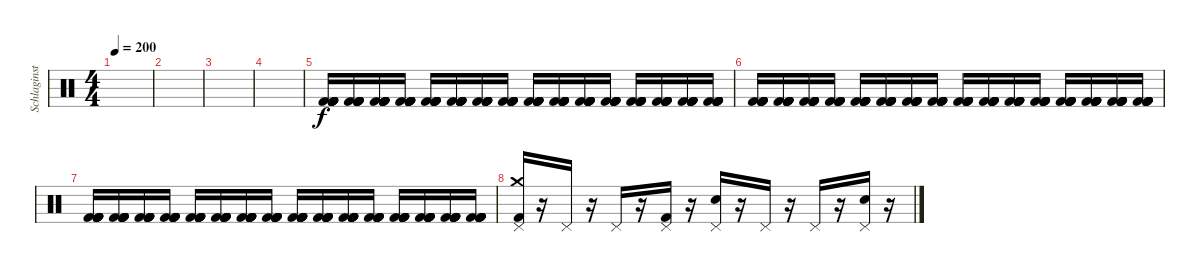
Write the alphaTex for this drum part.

\track ("Schlaginstrumente - Auswahl" "Schlaginst") {instrument percussion}
\staff {score}
\articulation defaults
\ts (4 4)
\tempo 200
\clef neutral
\ks c
|
|
|
|
("Kick (hit) 2" "Kick (hit) 2" "Kick (hit) 2" "Kick (hit) 2" "Kick (hit) 2" "Kick (hit) 2").16 ("Kick (hit) 2" "Kick (hit) 2" "Kick (hit) 2" "Kick (hit) 2" "Kick (hit) 2" "Kick (hit) 2").16 ("Kick (hit) 2" "Kick (hit) 2" "Kick (hit) 2" "Kick (hit) 2" "Kick (hit) 2" "Kick (hit) 2").16 ("Kick (hit) 2" "Kick (hit) 2" "Kick (hit) 2" "Kick (hit) 2" "Kick (hit) 2" "Kick (hit) 2").16 ("Kick (hit) 2" "Kick (hit) 2" "Kick (hit) 2" "Kick (hit) 2" "Kick (hit) 2" "Kick (hit) 2").16 ("Kick (hit) 2" "Kick (hit) 2" "Kick (hit) 2" "Kick (hit) 2" "Kick (hit) 2" "Kick (hit) 2").16 ("Kick (hit) 2" "Kick (hit) 2" "Kick (hit) 2" "Kick (hit) 2" "Kick (hit) 2" "Kick (hit) 2").16 ("Kick (hit) 2" "Kick (hit) 2" "Kick (hit) 2" "Kick (hit) 2" "Kick (hit) 2" "Kick (hit) 2").16 ("Kick (hit) 2" "Kick (hit) 2" "Kick (hit) 2" "Kick (hit) 2" "Kick (hit) 2" "Kick (hit) 2").16 ("Kick (hit) 2" "Kick (hit) 2" "Kick (hit) 2" "Kick (hit) 2" "Kick (hit) 2" "Kick (hit) 2").16 ("Kick (hit) 2" "Kick (hit) 2" "Kick (hit) 2" "Kick (hit) 2" "Kick (hit) 2" "Kick (hit) 2").16 ("Kick (hit) 2" "Kick (hit) 2" "Kick (hit) 2" "Kick (hit) 2" "Kick (hit) 2" "Kick (hit) 2").16 ("Kick (hit) 2" "Kick (hit) 2" "Kick (hit) 2" "Kick (hit) 2" "Kick (hit) 2" "Kick (hit) 2").16 ("Kick (hit) 2" "Kick (hit) 2" "Kick (hit) 2" "Kick (hit) 2" "Kick (hit) 2" "Kick (hit) 2").16 ("Kick (hit) 2" "Kick (hit) 2" "Kick (hit) 2" "Kick (hit) 2" "Kick (hit) 2" "Kick (hit) 2").16 ("Kick (hit) 2" "Kick (hit) 2" "Kick (hit) 2" "Kick (hit) 2" "Kick (hit) 2" "Kick (hit) 2").16 |
("Kick (hit) 2" "Kick (hit) 2" "Kick (hit) 2" "Kick (hit) 2" "Kick (hit) 2" "Kick (hit) 2").16 ("Kick (hit) 2" "Kick (hit) 2" "Kick (hit) 2" "Kick (hit) 2" "Kick (hit) 2" "Kick (hit) 2").16 ("Kick (hit) 2" "Kick (hit) 2" "Kick (hit) 2" "Kick (hit) 2" "Kick (hit) 2" "Kick (hit) 2").16 ("Kick (hit) 2" "Kick (hit) 2" "Kick (hit) 2" "Kick (hit) 2" "Kick (hit) 2" "Kick (hit) 2").16 ("Kick (hit) 2" "Kick (hit) 2" "Kick (hit) 2" "Kick (hit) 2" "Kick (hit) 2" "Kick (hit) 2").16 ("Kick (hit) 2" "Kick (hit) 2" "Kick (hit) 2" "Kick (hit) 2" "Kick (hit) 2" "Kick (hit) 2").16 ("Kick (hit) 2" "Kick (hit) 2" "Kick (hit) 2" "Kick (hit) 2" "Kick (hit) 2" "Kick (hit) 2").16 ("Kick (hit) 2" "Kick (hit) 2" "Kick (hit) 2" "Kick (hit) 2" "Kick (hit) 2" "Kick (hit) 2").16 ("Kick (hit) 2" "Kick (hit) 2" "Kick (hit) 2" "Kick (hit) 2" "Kick (hit) 2" "Kick (hit) 2").16 ("Kick (hit) 2" "Kick (hit) 2" "Kick (hit) 2" "Kick (hit) 2" "Kick (hit) 2" "Kick (hit) 2").16 ("Kick (hit) 2" "Kick (hit) 2" "Kick (hit) 2" "Kick (hit) 2" "Kick (hit) 2" "Kick (hit) 2").16 ("Kick (hit) 2" "Kick (hit) 2" "Kick (hit) 2" "Kick (hit) 2" "Kick (hit) 2" "Kick (hit) 2").16 ("Kick (hit) 2" "Kick (hit) 2" "Kick (hit) 2" "Kick (hit) 2" "Kick (hit) 2" "Kick (hit) 2").16 ("Kick (hit) 2" "Kick (hit) 2" "Kick (hit) 2" "Kick (hit) 2" "Kick (hit) 2" "Kick (hit) 2").16 ("Kick (hit) 2" "Kick (hit) 2" "Kick (hit) 2" "Kick (hit) 2" "Kick (hit) 2" "Kick (hit) 2").16 ("Kick (hit) 2" "Kick (hit) 2" "Kick (hit) 2" "Kick (hit) 2" "Kick (hit) 2" "Kick (hit) 2").16 |
("Kick (hit) 2" "Kick (hit) 2" "Kick (hit) 2" "Kick (hit) 2" "Kick (hit) 2" "Kick (hit) 2").16 ("Kick (hit) 2" "Kick (hit) 2" "Kick (hit) 2" "Kick (hit) 2" "Kick (hit) 2" "Kick (hit) 2").16 ("Kick (hit) 2" "Kick (hit) 2" "Kick (hit) 2" "Kick (hit) 2" "Kick (hit) 2" "Kick (hit) 2").16 ("Kick (hit) 2" "Kick (hit) 2" "Kick (hit) 2" "Kick (hit) 2" "Kick (hit) 2" "Kick (hit) 2").16 ("Kick (hit) 2" "Kick (hit) 2" "Kick (hit) 2" "Kick (hit) 2" "Kick (hit) 2" "Kick (hit) 2").16 ("Kick (hit) 2" "Kick (hit) 2" "Kick (hit) 2" "Kick (hit) 2" "Kick (hit) 2" "Kick (hit) 2").16 ("Kick (hit) 2" "Kick (hit) 2" "Kick (hit) 2" "Kick (hit) 2" "Kick (hit) 2" "Kick (hit) 2").16 ("Kick (hit) 2" "Kick (hit) 2" "Kick (hit) 2" "Kick (hit) 2" "Kick (hit) 2" "Kick (hit) 2").16 ("Kick (hit) 2" "Kick (hit) 2" "Kick (hit) 2" "Kick (hit) 2" "Kick (hit) 2" "Kick (hit) 2").16 ("Kick (hit) 2" "Kick (hit) 2" "Kick (hit) 2" "Kick (hit) 2" "Kick (hit) 2" "Kick (hit) 2").16 ("Kick (hit) 2" "Kick (hit) 2" "Kick (hit) 2" "Kick (hit) 2" "Kick (hit) 2" "Kick (hit) 2").16 ("Kick (hit) 2" "Kick (hit) 2" "Kick (hit) 2" "Kick (hit) 2" "Kick (hit) 2" "Kick (hit) 2").16 ("Kick (hit) 2" "Kick (hit) 2" "Kick (hit) 2" "Kick (hit) 2" "Kick (hit) 2" "Kick (hit) 2").16 ("Kick (hit) 2" "Kick (hit) 2" "Kick (hit) 2" "Kick (hit) 2" "Kick (hit) 2" "Kick (hit) 2").16 ("Kick (hit) 2" "Kick (hit) 2" "Kick (hit) 2" "Kick (hit) 2" "Kick (hit) 2" "Kick (hit) 2").16 ("Kick (hit) 2" "Kick (hit) 2" "Kick (hit) 2" "Kick (hit) 2" "Kick (hit) 2" "Kick (hit) 2").16 |
("Crash medium (hit)" "Pedal Hi-Hat (hit)" "Kick (hit) 2").16 r.16 "Pedal Hi-Hat (hit)".16 r.16 "Pedal Hi-Hat (hit)".16 r.16 ("Pedal Hi-Hat (hit)" "Kick (hit) 2").16 r.16 ("Pedal Hi-Hat (hit)" "Electric Snare (hit)").16 r.16 "Pedal Hi-Hat (hit)".16 r.16 "Pedal Hi-Hat (hit)".16 r.16 ("Pedal Hi-Hat (hit)" "Electric Snare (hit)").16 r.16
